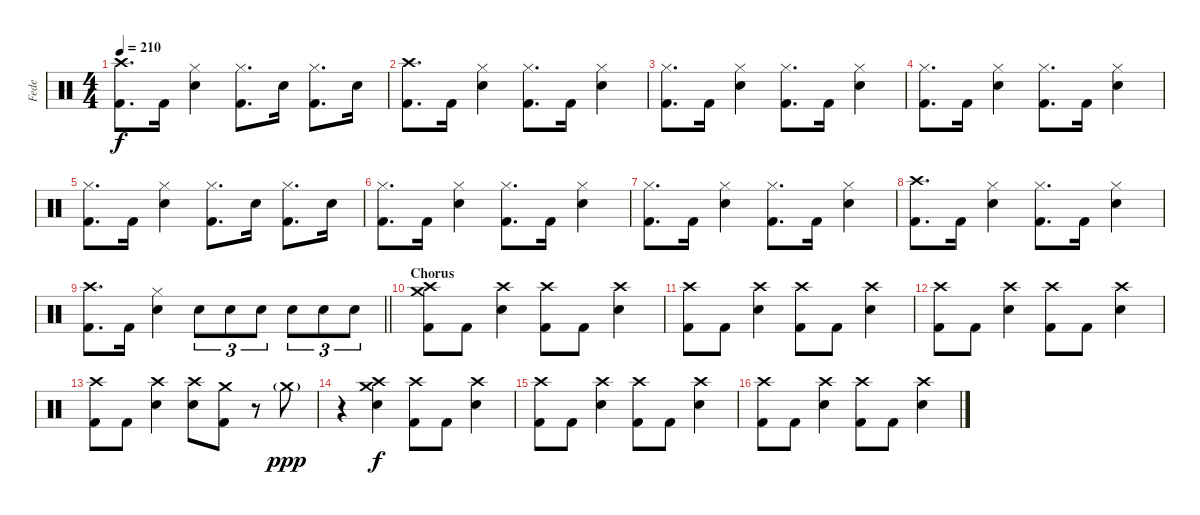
\track ("Fede" "Fede") {instrument percussion}
\staff {score}
\articulation defaults
\ts (4 4)
\tempo 210
\clef neutral
\ks c
("Crash high (hit)" "Kick (hit) 2").8{d dy f} "Kick (hit) 2".16 ("Hi-Hat (closed)" "Snare (hit) 2").4 ("Hi-Hat (closed)" "Kick (hit) 2").8{d} "Snare (hit) 2".16 ("Hi-Hat (closed)" "Kick (hit) 2").8{d} "Snare (hit) 2".16 |
("Crash high (hit)" "Kick (hit) 2").8{d} "Kick (hit) 2".16 ("Hi-Hat (closed)" "Snare (hit) 2").4 ("Hi-Hat (closed)" "Kick (hit) 2").8{d} "Kick (hit) 2".16 ("Hi-Hat (closed)" "Snare (hit) 2").4 |
("Hi-Hat (closed)" "Kick (hit) 2").8{d} "Kick (hit) 2".16 ("Hi-Hat (closed)" "Snare (hit) 2").4 ("Hi-Hat (closed)" "Kick (hit) 2").8{d} "Kick (hit) 2".16 ("Hi-Hat (closed)" "Snare (hit) 2").4 |
("Hi-Hat (closed)" "Kick (hit) 2").8{d} "Kick (hit) 2".16 ("Hi-Hat (closed)" "Snare (hit) 2").4 ("Hi-Hat (closed)" "Kick (hit) 2").8{d} "Kick (hit) 2".16 ("Hi-Hat (closed)" "Snare (hit) 2").4 |
("Hi-Hat (closed)" "Kick (hit) 2").8{d} "Kick (hit) 2".16 ("Hi-Hat (closed)" "Snare (hit) 2").4 ("Hi-Hat (closed)" "Kick (hit) 2").8{d} "Snare (hit) 2".16 ("Hi-Hat (closed)" "Kick (hit) 2").8{d} "Snare (hit) 2".16 |
("Hi-Hat (closed)" "Kick (hit) 2").8{d} "Kick (hit) 2".16 ("Hi-Hat (closed)" "Snare (hit) 2").4 ("Hi-Hat (closed)" "Kick (hit) 2").8{d} "Kick (hit) 2".16 ("Hi-Hat (closed)" "Snare (hit) 2").4 |
("Hi-Hat (closed)" "Kick (hit) 2").8{d} "Kick (hit) 2".16 ("Hi-Hat (closed)" "Snare (hit) 2").4 ("Hi-Hat (closed)" "Kick (hit) 2").8{d} "Kick (hit) 2".16 ("Hi-Hat (closed)" "Snare (hit) 2").4 |
("Crash high (hit)" "Kick (hit) 2").8{d} "Kick (hit) 2".16 ("Hi-Hat (closed)" "Snare (hit) 2").4 ("Hi-Hat (closed)" "Kick (hit) 2").8{d} "Kick (hit) 2".16 ("Hi-Hat (closed)" "Snare (hit) 2").4 |
\barLineRight lightlight
("Crash high (hit)" "Kick (hit) 2").8{d} "Kick (hit) 2".16 ("Hi-Hat (closed)" "Snare (hit) 2").4 "Snare (hit) 2".8{tu (3 2)} "Snare (hit) 2".8{tu (3 2)} "Snare (hit) 2".8{tu (3 2)} "Snare (hit) 2".8{tu (3 2)} "Snare (hit) 2".8{tu (3 2)} "Snare (hit) 2".8{tu (3 2)} |
\section ("" "Chorus")
("Crash high (hit)" "Crash medium (hit)" "Kick (hit) 2").8 "Kick (hit) 2".8 ("Crash high (hit)" "Snare (hit) 2").4 ("Crash high (hit)" "Kick (hit) 2").8 "Kick (hit) 2".8 ("Crash high (hit)" "Snare (hit) 2").4 |
("Crash high (hit)" "Kick (hit) 2").8 "Kick (hit) 2".8 ("Crash high (hit)" "Snare (hit) 2").4 ("Crash high (hit)" "Kick (hit) 2").8 "Kick (hit) 2".8 ("Crash high (hit)" "Snare (hit) 2").4 |
("Crash high (hit)" "Kick (hit) 2").8 "Kick (hit) 2".8 ("Crash high (hit)" "Snare (hit) 2").4 ("Crash high (hit)" "Kick (hit) 2").8 "Kick (hit) 2".8 ("Crash high (hit)" "Snare (hit) 2").4 |
("Crash high (hit)" "Kick (hit) 2").8 "Kick (hit) 2".8 ("Crash high (hit)" "Snare (hit) 2").4 ("Crash high (hit)" "Snare (hit) 2").8 ("Crash medium (hit)" "Kick (hit) 2").8 r.8 "Crash medium (hit)"{g}.8{dy ppp} |
r.4 ("Crash high (hit)" "Crash medium (hit)" "Snare (hit) 2").4{dy f} ("Crash high (hit)" "Kick (hit) 2").8 "Kick (hit) 2".8 ("Crash high (hit)" "Snare (hit) 2").4 |
("Crash high (hit)" "Kick (hit) 2").8 "Kick (hit) 2".8 ("Crash high (hit)" "Snare (hit) 2").4 ("Crash high (hit)" "Kick (hit) 2").8 "Kick (hit) 2".8 ("Crash high (hit)" "Snare (hit) 2").4 |
("Crash high (hit)" "Kick (hit) 2").8 "Kick (hit) 2".8 ("Crash high (hit)" "Snare (hit) 2").4 ("Crash high (hit)" "Kick (hit) 2").8 "Kick (hit) 2".8 ("Crash high (hit)" "Snare (hit) 2").4
